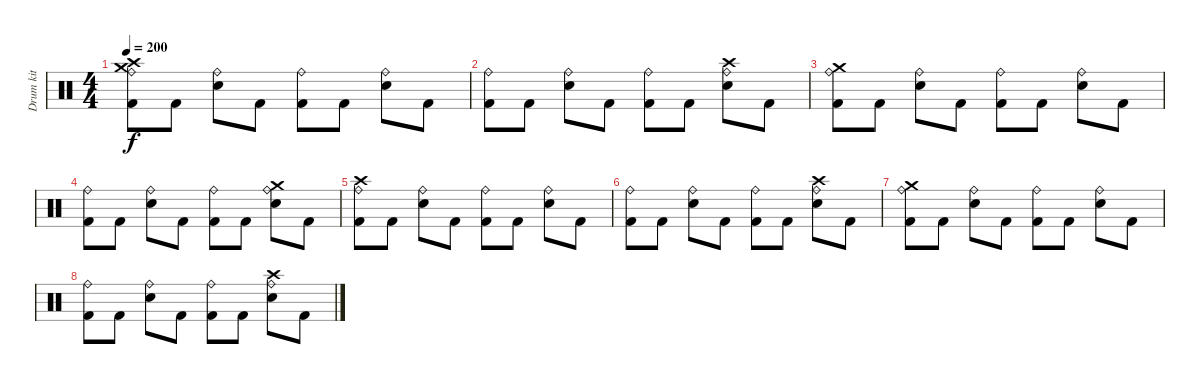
\track ("Drum kit" "Drum kit") {instrument percussion}
\staff {score}
\articulation defaults
\ts (4 4)
\tempo 200
\clef neutral
\ks c
("Crash medium (hit)" "Crash high (hit)" "Kick (hit) 2" "Ride (bell)").8{dy f} "Kick (hit) 2".8 ("Electric Snare (hit)" "Ride (bell)").8 "Kick (hit) 2".8 ("Kick (hit) 2" "Ride (bell)").8 "Kick (hit) 2".8 ("Electric Snare (hit)" "Ride (bell)").8 "Kick (hit) 2".8 |
("Kick (hit) 2" "Ride (bell)").8 "Kick (hit) 2".8 ("Electric Snare (hit)" "Ride (bell)").8 "Kick (hit) 2".8 ("Kick (hit) 2" "Ride (bell)").8 "Kick (hit) 2".8 ("Crash high (hit)" "Electric Snare (hit)" "Ride (bell)").8 "Kick (hit) 2".8 |
("Crash medium (hit)" "Kick (hit) 2" "Ride (bell)").8 "Kick (hit) 2".8 ("Electric Snare (hit)" "Ride (bell)").8 "Kick (hit) 2".8 ("Kick (hit) 2" "Ride (bell)").8 "Kick (hit) 2".8 ("Electric Snare (hit)" "Ride (bell)").8 "Kick (hit) 2".8 |
("Kick (hit) 2" "Ride (bell)").8 "Kick (hit) 2".8 ("Electric Snare (hit)" "Ride (bell)").8 "Kick (hit) 2".8 ("Kick (hit) 2" "Ride (bell)").8 "Kick (hit) 2".8 ("Crash medium (hit)" "Electric Snare (hit)" "Ride (bell)").8 "Kick (hit) 2".8 |
("Crash high (hit)" "Kick (hit) 2" "Ride (bell)").8{volume 0} "Kick (hit) 2".8 ("Electric Snare (hit)" "Ride (bell)").8 "Kick (hit) 2".8 ("Kick (hit) 2" "Ride (bell)").8 "Kick (hit) 2".8 ("Electric Snare (hit)" "Ride (bell)").8 "Kick (hit) 2".8 |
("Kick (hit) 2" "Ride (bell)").8 "Kick (hit) 2".8 ("Electric Snare (hit)" "Ride (bell)").8 "Kick (hit) 2".8 ("Kick (hit) 2" "Ride (bell)").8 "Kick (hit) 2".8 ("Crash high (hit)" "Electric Snare (hit)" "Ride (bell)").8 "Kick (hit) 2".8 |
("Crash medium (hit)" "Kick (hit) 2" "Ride (bell)").8 "Kick (hit) 2".8 ("Electric Snare (hit)" "Ride (bell)").8 "Kick (hit) 2".8 ("Kick (hit) 2" "Ride (bell)").8 "Kick (hit) 2".8 ("Electric Snare (hit)" "Ride (bell)").8 "Kick (hit) 2".8 |
("Kick (hit) 2" "Ride (bell)").8 "Kick (hit) 2".8 ("Electric Snare (hit)" "Ride (bell)").8 "Kick (hit) 2".8 ("Kick (hit) 2" "Ride (bell)").8 "Kick (hit) 2".8 ("Crash high (hit)" "Electric Snare (hit)" "Ride (bell)").8 "Kick (hit) 2".8
